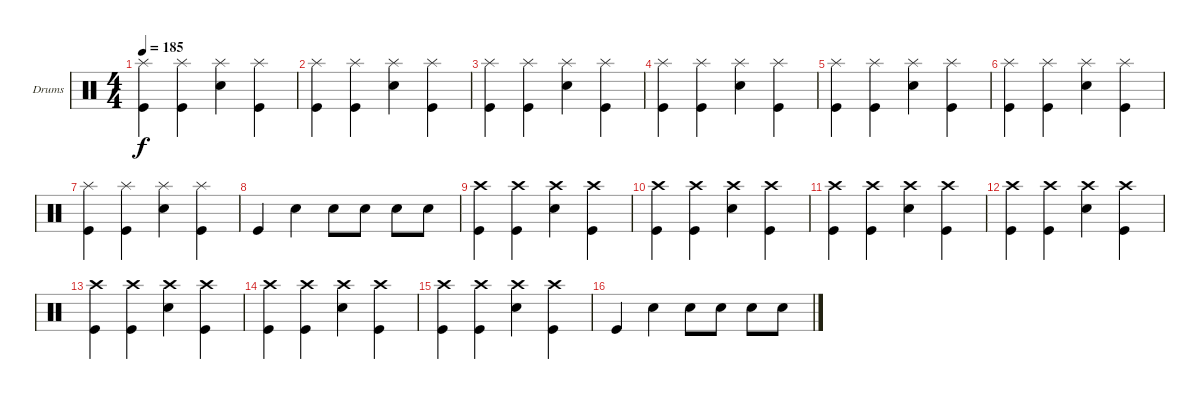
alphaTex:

\defaultSystemsLayout 4
\bracketExtendMode groupsimilarinstruments
\firstSystemTrackNameOrientation horizontal
\otherSystemsTrackNameOrientation horizontal
\track ("Chuck Comeau" "Drums") {instrument percussion}
\staff {score}
\articulation defaults
\ts (4 4)
\tempo 185
\clef neutral
\scale
0.333333
\ks c
("Splash (hit)" "Kick (hit)").4{dy f} ("Splash (hit)" "Kick (hit)").4 ("Splash (hit)" "Snare (hit) 2").4 ("Splash (hit)" "Kick (hit)").4 |
\scale
0.333333 ("Splash (hit)" "Kick (hit)").4 ("Splash (hit)" "Kick (hit)").4 ("Splash (hit)" "Snare (hit) 2").4 ("Splash (hit)" "Kick (hit)").4 |
\scale
0.333333 ("Splash (hit)" "Kick (hit)").4 ("Splash (hit)" "Kick (hit)").4 ("Splash (hit)" "Snare (hit) 2").4 ("Splash (hit)" "Kick (hit)").4 |
\scale
0.333333 ("Splash (hit)" "Kick (hit)").4 ("Splash (hit)" "Kick (hit)").4 ("Splash (hit)" "Snare (hit) 2").4 ("Splash (hit)" "Kick (hit)").4 |
\scale
0.333333 ("Splash (hit)" "Kick (hit)").4 ("Splash (hit)" "Kick (hit)").4 ("Splash (hit)" "Snare (hit) 2").4 ("Splash (hit)" "Kick (hit)").4 |
\scale
0.333333 ("Splash (hit)" "Kick (hit)").4 ("Splash (hit)" "Kick (hit)").4 ("Splash (hit)" "Snare (hit) 2").4 ("Splash (hit)" "Kick (hit)").4 |
\scale
0.333333 ("Splash (hit)" "Kick (hit)").4 ("Splash (hit)" "Kick (hit)").4 ("Splash (hit)" "Snare (hit) 2").4 ("Splash (hit)" "Kick (hit)").4 |
\scale
0.333333 "Kick (hit)".4 "Snare (hit) 2".4 "Snare (hit) 2".8 "Snare (hit) 2".8 "Snare (hit) 2".8 "Snare (hit) 2".8 |
\scale
0.333333 ("Crash high (hit)" "Kick (hit)").4 ("Crash high (hit)" "Kick (hit)").4 ("Crash high (hit)" "Snare (hit) 2").4 ("Crash high (hit)" "Kick (hit)").4 |
\scale
0.333333 ("Crash high (hit)" "Kick (hit)").4 ("Crash high (hit)" "Kick (hit)").4 ("Crash high (hit)" "Snare (hit) 2").4 ("Crash high (hit)" "Kick (hit)").4 |
\scale
0.333333 ("Crash high (hit)" "Kick (hit)").4 ("Crash high (hit)" "Kick (hit)").4 ("Crash high (hit)" "Snare (hit) 2").4 ("Crash high (hit)" "Kick (hit)").4 |
\scale
0.333333 ("Crash high (hit)" "Kick (hit)").4 ("Crash high (hit)" "Kick (hit)").4 ("Crash high (hit)" "Snare (hit) 2").4 ("Crash high (hit)" "Kick (hit)").4 |
\scale
0.333333 ("Crash high (hit)" "Kick (hit)").4 ("Crash high (hit)" "Kick (hit)").4 ("Crash high (hit)" "Snare (hit) 2").4 ("Crash high (hit)" "Kick (hit)").4 |
\scale
0.333333 ("Crash high (hit)" "Kick (hit)").4 ("Crash high (hit)" "Kick (hit)").4 ("Crash high (hit)" "Snare (hit) 2").4 ("Crash high (hit)" "Kick (hit)").4 |
\scale
0.333333 ("Crash high (hit)" "Kick (hit)").4 ("Crash high (hit)" "Kick (hit)").4 ("Crash high (hit)" "Snare (hit) 2").4 ("Crash high (hit)" "Kick (hit)").4 |
\scale
0.333333 "Kick (hit)".4 "Snare (hit) 2".4 "Snare (hit) 2".8 "Snare (hit) 2".8 "Snare (hit) 2".8 "Snare (hit) 2".8
